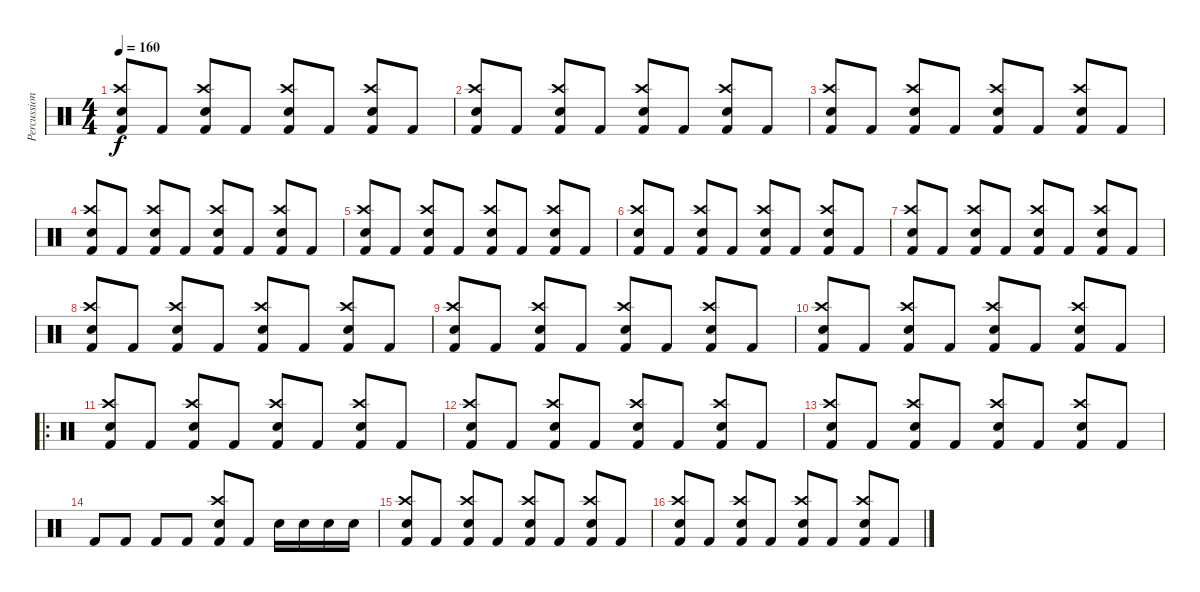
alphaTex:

\track ("Percussions" "Percussion") {instrument percussion}
\staff {score}
\articulation defaults
\ts (4 4)
\tempo 160
\clef neutral
\ks c
("Electric Snare (hit)" "Crash high (hit)" "Kick (hit) 2").8{dy f} "Kick (hit) 2".8 ("Electric Snare (hit)" "Crash high (hit)" "Kick (hit) 2").8 "Kick (hit) 2".8 ("Electric Snare (hit)" "Crash high (hit)" "Kick (hit) 2").8 "Kick (hit) 2".8 ("Electric Snare (hit)" "Crash high (hit)" "Kick (hit) 2").8 "Kick (hit) 2".8 |
("Electric Snare (hit)" "Crash high (hit)" "Kick (hit) 2").8 "Kick (hit) 2".8 ("Electric Snare (hit)" "Crash high (hit)" "Kick (hit) 2").8 "Kick (hit) 2".8 ("Electric Snare (hit)" "Crash high (hit)" "Kick (hit) 2").8 "Kick (hit) 2".8 ("Electric Snare (hit)" "Crash high (hit)" "Kick (hit) 2").8 "Kick (hit) 2".8 |
("Electric Snare (hit)" "Crash high (hit)" "Kick (hit) 2").8 "Kick (hit) 2".8 ("Electric Snare (hit)" "Crash high (hit)" "Kick (hit) 2").8 "Kick (hit) 2".8 ("Electric Snare (hit)" "Crash high (hit)" "Kick (hit) 2").8 "Kick (hit) 2".8 ("Electric Snare (hit)" "Crash high (hit)" "Kick (hit) 2").8 "Kick (hit) 2".8 |
("Electric Snare (hit)" "Crash high (hit)" "Kick (hit) 2").8 "Kick (hit) 2".8 ("Electric Snare (hit)" "Crash high (hit)" "Kick (hit) 2").8 "Kick (hit) 2".8 ("Electric Snare (hit)" "Crash high (hit)" "Kick (hit) 2").8 "Kick (hit) 2".8 ("Electric Snare (hit)" "Crash high (hit)" "Kick (hit) 2").8 "Kick (hit) 2".8 |
("Electric Snare (hit)" "Crash high (hit)" "Kick (hit) 2").8 "Kick (hit) 2".8 ("Electric Snare (hit)" "Crash high (hit)" "Kick (hit) 2").8 "Kick (hit) 2".8 ("Electric Snare (hit)" "Crash high (hit)" "Kick (hit) 2").8 "Kick (hit) 2".8 ("Electric Snare (hit)" "Crash high (hit)" "Kick (hit) 2").8 "Kick (hit) 2".8 |
("Electric Snare (hit)" "Crash high (hit)" "Kick (hit) 2").8 "Kick (hit) 2".8 ("Electric Snare (hit)" "Crash high (hit)" "Kick (hit) 2").8 "Kick (hit) 2".8 ("Electric Snare (hit)" "Crash high (hit)" "Kick (hit) 2").8 "Kick (hit) 2".8 ("Electric Snare (hit)" "Crash high (hit)" "Kick (hit) 2").8 "Kick (hit) 2".8 |
("Electric Snare (hit)" "Crash high (hit)" "Kick (hit) 2").8 "Kick (hit) 2".8 ("Electric Snare (hit)" "Crash high (hit)" "Kick (hit) 2").8 "Kick (hit) 2".8 ("Electric Snare (hit)" "Crash high (hit)" "Kick (hit) 2").8 "Kick (hit) 2".8 ("Electric Snare (hit)" "Crash high (hit)" "Kick (hit) 2").8 "Kick (hit) 2".8 |
("Electric Snare (hit)" "Crash high (hit)" "Kick (hit) 2").8 "Kick (hit) 2".8 ("Electric Snare (hit)" "Crash high (hit)" "Kick (hit) 2").8 "Kick (hit) 2".8 ("Electric Snare (hit)" "Crash high (hit)" "Kick (hit) 2").8 "Kick (hit) 2".8 ("Electric Snare (hit)" "Crash high (hit)" "Kick (hit) 2").8 "Kick (hit) 2".8 |
("Electric Snare (hit)" "Crash high (hit)" "Kick (hit) 2").8 "Kick (hit) 2".8 ("Electric Snare (hit)" "Crash high (hit)" "Kick (hit) 2").8 "Kick (hit) 2".8 ("Electric Snare (hit)" "Crash high (hit)" "Kick (hit) 2").8 "Kick (hit) 2".8 ("Electric Snare (hit)" "Crash high (hit)" "Kick (hit) 2").8 "Kick (hit) 2".8 |
("Electric Snare (hit)" "Crash high (hit)" "Kick (hit) 2").8 "Kick (hit) 2".8 ("Electric Snare (hit)" "Crash high (hit)" "Kick (hit) 2").8 "Kick (hit) 2".8 ("Electric Snare (hit)" "Crash high (hit)" "Kick (hit) 2").8 "Kick (hit) 2".8 ("Electric Snare (hit)" "Crash high (hit)" "Kick (hit) 2").8 "Kick (hit) 2".8 |
\ro
("Electric Snare (hit)" "Crash high (hit)" "Kick (hit) 2").8 "Kick (hit) 2".8 ("Electric Snare (hit)" "Crash high (hit)" "Kick (hit) 2").8 "Kick (hit) 2".8 ("Electric Snare (hit)" "Crash high (hit)" "Kick (hit) 2").8 "Kick (hit) 2".8 ("Electric Snare (hit)" "Crash high (hit)" "Kick (hit) 2").8 "Kick (hit) 2".8 |
("Electric Snare (hit)" "Crash high (hit)" "Kick (hit) 2").8 "Kick (hit) 2".8 ("Electric Snare (hit)" "Crash high (hit)" "Kick (hit) 2").8 "Kick (hit) 2".8 ("Electric Snare (hit)" "Crash high (hit)" "Kick (hit) 2").8 "Kick (hit) 2".8 ("Electric Snare (hit)" "Crash high (hit)" "Kick (hit) 2").8 "Kick (hit) 2".8 |
("Electric Snare (hit)" "Crash high (hit)" "Kick (hit) 2").8 "Kick (hit) 2".8 ("Electric Snare (hit)" "Crash high (hit)" "Kick (hit) 2").8 "Kick (hit) 2".8 ("Electric Snare (hit)" "Crash high (hit)" "Kick (hit) 2").8 "Kick (hit) 2".8 ("Electric Snare (hit)" "Crash high (hit)" "Kick (hit) 2").8 "Kick (hit) 2".8 |
"Kick (hit) 2".8 "Kick (hit) 2".8 "Kick (hit) 2".8 "Kick (hit) 2".8 ("Crash high (hit)" "Kick (hit) 2" "Electric Snare (hit)").8 "Kick (hit) 2".8 "Electric Snare (hit)".16 "Electric Snare (hit)".16 "Electric Snare (hit)".16 "Electric Snare (hit)".16 |
("Electric Snare (hit)" "Crash high (hit)" "Kick (hit) 2").8 "Kick (hit) 2".8 ("Electric Snare (hit)" "Crash high (hit)" "Kick (hit) 2").8 "Kick (hit) 2".8 ("Electric Snare (hit)" "Crash high (hit)" "Kick (hit) 2").8 "Kick (hit) 2".8 ("Electric Snare (hit)" "Crash high (hit)" "Kick (hit) 2").8 "Kick (hit) 2".8 |
("Electric Snare (hit)" "Crash high (hit)" "Kick (hit) 2").8 "Kick (hit) 2".8 ("Electric Snare (hit)" "Crash high (hit)" "Kick (hit) 2").8 "Kick (hit) 2".8 ("Electric Snare (hit)" "Crash high (hit)" "Kick (hit) 2").8 "Kick (hit) 2".8 ("Electric Snare (hit)" "Crash high (hit)" "Kick (hit) 2").8 "Kick (hit) 2".8
